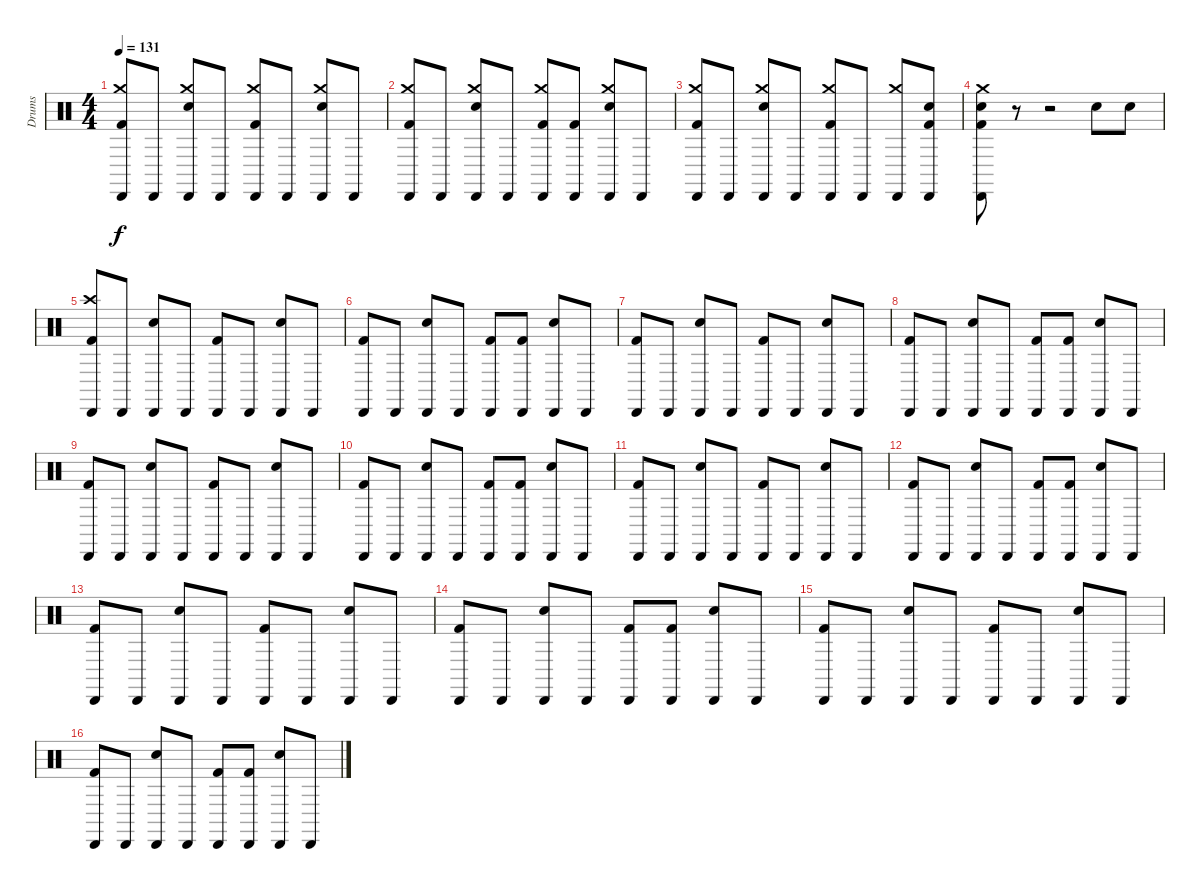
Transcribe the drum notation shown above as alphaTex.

\track ("Drums" "Drums") {instrument percussion}
\staff {score}
\articulation defaults
\ts (4 4)
\tempo 131
\clef neutral
\ks c
("Crash medium (hit)" "Cabasa (hit)" "Kick (hit) 2").8{dy f} "Cabasa (hit)".8 ("Crash medium (hit)" "Cabasa (hit)" "Electric Snare (hit)").8 "Cabasa (hit)".8 ("Crash medium (hit)" "Cabasa (hit)" "Kick (hit) 2").8 "Cabasa (hit)".8 ("Crash medium (hit)" "Cabasa (hit)" "Electric Snare (hit)").8 "Cabasa (hit)".8 |
("Crash medium (hit)" "Cabasa (hit)" "Kick (hit) 2").8 "Cabasa (hit)".8 ("Crash medium (hit)" "Cabasa (hit)" "Electric Snare (hit)").8 "Cabasa (hit)".8 ("Crash medium (hit)" "Cabasa (hit)" "Kick (hit) 2").8 ("Cabasa (hit)" "Kick (hit) 2").8 ("Crash medium (hit)" "Cabasa (hit)" "Electric Snare (hit)").8 "Cabasa (hit)".8 |
("Crash medium (hit)" "Cabasa (hit)" "Kick (hit) 2").8 "Cabasa (hit)".8 ("Crash medium (hit)" "Cabasa (hit)" "Electric Snare (hit)").8 "Cabasa (hit)".8 ("Crash medium (hit)" "Cabasa (hit)" "Kick (hit) 2").8 "Cabasa (hit)".8 ("Crash medium (hit)" "Cabasa (hit)").8 ("Cabasa (hit)" "Electric Snare (hit)" "Kick (hit) 2").8 |
("Crash medium (hit)" "Cabasa (hit)" "Electric Snare (hit)" "Kick (hit) 2").8 r.8 r.2 "Electric Snare (hit)".8 "Electric Snare (hit)".8 |
("Crash high (hit)" "Cabasa (hit)" "Kick (hit) 2").8 "Cabasa (hit)".8 ("Cabasa (hit)" "Electric Snare (hit)").8 "Cabasa (hit)".8 ("Cabasa (hit)" "Kick (hit) 2").8 "Cabasa (hit)".8 ("Cabasa (hit)" "Electric Snare (hit)").8 "Cabasa (hit)".8 |
("Cabasa (hit)" "Kick (hit) 2").8 "Cabasa (hit)".8 ("Cabasa (hit)" "Electric Snare (hit)").8 "Cabasa (hit)".8 ("Cabasa (hit)" "Kick (hit) 2").8 ("Cabasa (hit)" "Kick (hit) 2").8 ("Cabasa (hit)" "Electric Snare (hit)").8 "Cabasa (hit)".8 |
("Cabasa (hit)" "Kick (hit) 2").8 "Cabasa (hit)".8 ("Cabasa (hit)" "Electric Snare (hit)").8 "Cabasa (hit)".8 ("Cabasa (hit)" "Kick (hit) 2").8 "Cabasa (hit)".8 ("Cabasa (hit)" "Electric Snare (hit)").8 "Cabasa (hit)".8 |
("Cabasa (hit)" "Kick (hit) 2").8 "Cabasa (hit)".8 ("Cabasa (hit)" "Electric Snare (hit)").8 "Cabasa (hit)".8 ("Cabasa (hit)" "Kick (hit) 2").8 ("Cabasa (hit)" "Kick (hit) 2").8 ("Cabasa (hit)" "Electric Snare (hit)").8 "Cabasa (hit)".8 |
("Cabasa (hit)" "Kick (hit) 2").8 "Cabasa (hit)".8 ("Cabasa (hit)" "Electric Snare (hit)").8 "Cabasa (hit)".8 ("Cabasa (hit)" "Kick (hit) 2").8 "Cabasa (hit)".8 ("Cabasa (hit)" "Electric Snare (hit)").8 "Cabasa (hit)".8 |
("Cabasa (hit)" "Kick (hit) 2").8 "Cabasa (hit)".8 ("Cabasa (hit)" "Electric Snare (hit)").8 "Cabasa (hit)".8 ("Cabasa (hit)" "Kick (hit) 2").8 ("Cabasa (hit)" "Kick (hit) 2").8 ("Cabasa (hit)" "Electric Snare (hit)").8 "Cabasa (hit)".8 |
("Cabasa (hit)" "Kick (hit) 2").8 "Cabasa (hit)".8 ("Cabasa (hit)" "Electric Snare (hit)").8 "Cabasa (hit)".8 ("Cabasa (hit)" "Kick (hit) 2").8 "Cabasa (hit)".8 ("Cabasa (hit)" "Electric Snare (hit)").8 "Cabasa (hit)".8 |
("Cabasa (hit)" "Kick (hit) 2").8 "Cabasa (hit)".8 ("Cabasa (hit)" "Electric Snare (hit)").8 "Cabasa (hit)".8 ("Cabasa (hit)" "Kick (hit) 2").8 ("Cabasa (hit)" "Kick (hit) 2").8 ("Cabasa (hit)" "Electric Snare (hit)").8 "Cabasa (hit)".8 |
("Cabasa (hit)" "Kick (hit) 2").8 "Cabasa (hit)".8 ("Cabasa (hit)" "Electric Snare (hit)").8 "Cabasa (hit)".8 ("Cabasa (hit)" "Kick (hit) 2").8 "Cabasa (hit)".8 ("Cabasa (hit)" "Electric Snare (hit)").8 "Cabasa (hit)".8 |
("Cabasa (hit)" "Kick (hit) 2").8 "Cabasa (hit)".8 ("Cabasa (hit)" "Electric Snare (hit)").8 "Cabasa (hit)".8 ("Cabasa (hit)" "Kick (hit) 2").8 ("Cabasa (hit)" "Kick (hit) 2").8 ("Cabasa (hit)" "Electric Snare (hit)").8 "Cabasa (hit)".8 |
("Cabasa (hit)" "Kick (hit) 2").8 "Cabasa (hit)".8 ("Cabasa (hit)" "Electric Snare (hit)").8 "Cabasa (hit)".8 ("Cabasa (hit)" "Kick (hit) 2").8 "Cabasa (hit)".8 ("Cabasa (hit)" "Electric Snare (hit)").8 "Cabasa (hit)".8 |
("Cabasa (hit)" "Kick (hit) 2").8 "Cabasa (hit)".8 ("Cabasa (hit)" "Electric Snare (hit)").8 "Cabasa (hit)".8 ("Cabasa (hit)" "Kick (hit) 2").8 ("Cabasa (hit)" "Kick (hit) 2").8 ("Cabasa (hit)" "Electric Snare (hit)").8 "Cabasa (hit)".8
